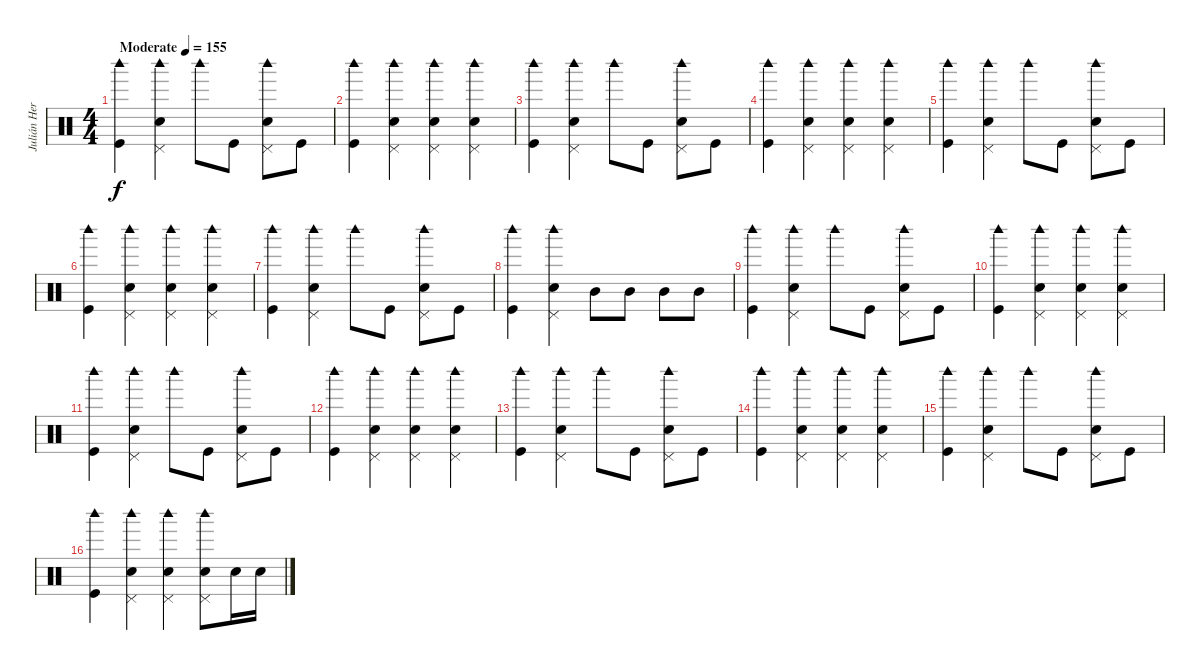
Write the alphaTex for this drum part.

\track ("Julián Hernandez" "Julián Her") {instrument percussion}
\staff {score}
\articulation defaults
\ts (4 4)
\tempo (155 "Moderate")
\clef neutral
\ks c
("Woodblock high (hit)" "Kick (hit)").4{dy f} ("Woodblock high (hit)" "Pedal Hi-Hat (hit)" "Snare (hit) 2").4 "Woodblock high (hit)".8 "Kick (hit)".8 ("Woodblock high (hit)" "Pedal Hi-Hat (hit)" "Snare (hit) 2").8 "Kick (hit)".8 |
("Woodblock high (hit)" "Kick (hit)").4 ("Woodblock high (hit)" "Pedal Hi-Hat (hit)" "Snare (hit) 2").4 ("Woodblock high (hit)" "Pedal Hi-Hat (hit)" "Snare (hit) 2").4 ("Woodblock high (hit)" "Pedal Hi-Hat (hit)" "Snare (hit) 2").4 |
("Woodblock high (hit)" "Kick (hit)").4 ("Woodblock high (hit)" "Pedal Hi-Hat (hit)" "Snare (hit) 2").4 "Woodblock high (hit)".8 "Kick (hit)".8 ("Woodblock high (hit)" "Pedal Hi-Hat (hit)" "Snare (hit) 2").8 "Kick (hit)".8 |
("Woodblock high (hit)" "Kick (hit)").4 ("Woodblock high (hit)" "Pedal Hi-Hat (hit)" "Snare (hit) 2").4 ("Woodblock high (hit)" "Pedal Hi-Hat (hit)" "Snare (hit) 2").4 ("Woodblock high (hit)" "Pedal Hi-Hat (hit)" "Snare (hit) 2").4 |
("Woodblock high (hit)" "Kick (hit)").4 ("Woodblock high (hit)" "Pedal Hi-Hat (hit)" "Snare (hit) 2").4 "Woodblock high (hit)".8 "Kick (hit)".8 ("Woodblock high (hit)" "Pedal Hi-Hat (hit)" "Snare (hit) 2").8 "Kick (hit)".8 |
("Woodblock high (hit)" "Kick (hit)").4 ("Woodblock high (hit)" "Pedal Hi-Hat (hit)" "Snare (hit) 2").4 ("Woodblock high (hit)" "Pedal Hi-Hat (hit)" "Snare (hit) 2").4 ("Woodblock high (hit)" "Pedal Hi-Hat (hit)" "Snare (hit) 2").4 |
("Woodblock high (hit)" "Kick (hit)").4 ("Woodblock high (hit)" "Pedal Hi-Hat (hit)" "Snare (hit) 2").4 "Woodblock high (hit)".8 "Kick (hit)".8 ("Woodblock high (hit)" "Pedal Hi-Hat (hit)" "Snare (hit) 2").8 "Kick (hit)".8 |
("Woodblock high (hit)" "Kick (hit)").4 ("Woodblock high (hit)" "Pedal Hi-Hat (hit)" "Snare (hit) 2").4 "Mid Tom (hit)".8 "Mid Tom (hit)".8 "Mid Tom (hit)".8 "Mid Tom (hit)".8 |
("Woodblock high (hit)" "Kick (hit)").4 ("Woodblock high (hit)" "Pedal Hi-Hat (hit)" "Snare (hit) 2").4 "Woodblock high (hit)".8 "Kick (hit)".8 ("Woodblock high (hit)" "Pedal Hi-Hat (hit)" "Snare (hit) 2").8 "Kick (hit)".8 |
("Woodblock high (hit)" "Kick (hit)").4 ("Woodblock high (hit)" "Pedal Hi-Hat (hit)" "Snare (hit) 2").4 ("Woodblock high (hit)" "Pedal Hi-Hat (hit)" "Snare (hit) 2").4 ("Woodblock high (hit)" "Pedal Hi-Hat (hit)" "Snare (hit) 2").4 |
("Woodblock high (hit)" "Kick (hit)").4 ("Woodblock high (hit)" "Pedal Hi-Hat (hit)" "Snare (hit) 2").4 "Woodblock high (hit)".8 "Kick (hit)".8 ("Woodblock high (hit)" "Pedal Hi-Hat (hit)" "Snare (hit) 2").8 "Kick (hit)".8 |
("Woodblock high (hit)" "Kick (hit)").4 ("Woodblock high (hit)" "Pedal Hi-Hat (hit)" "Snare (hit) 2").4 ("Woodblock high (hit)" "Pedal Hi-Hat (hit)" "Snare (hit) 2").4 ("Woodblock high (hit)" "Pedal Hi-Hat (hit)" "Snare (hit) 2").4 |
("Woodblock high (hit)" "Kick (hit)").4 ("Woodblock high (hit)" "Pedal Hi-Hat (hit)" "Snare (hit) 2").4 "Woodblock high (hit)".8 "Kick (hit)".8 ("Woodblock high (hit)" "Pedal Hi-Hat (hit)" "Snare (hit) 2").8 "Kick (hit)".8 |
("Woodblock high (hit)" "Kick (hit)").4 ("Woodblock high (hit)" "Pedal Hi-Hat (hit)" "Snare (hit) 2").4 ("Woodblock high (hit)" "Pedal Hi-Hat (hit)" "Snare (hit) 2").4 ("Woodblock high (hit)" "Pedal Hi-Hat (hit)" "Snare (hit) 2").4 |
("Woodblock high (hit)" "Kick (hit)").4 ("Woodblock high (hit)" "Pedal Hi-Hat (hit)" "Snare (hit) 2").4 "Woodblock high (hit)".8 "Kick (hit)".8 ("Woodblock high (hit)" "Pedal Hi-Hat (hit)" "Snare (hit) 2").8 "Kick (hit)".8 |
("Woodblock high (hit)" "Kick (hit)").4 ("Woodblock high (hit)" "Pedal Hi-Hat (hit)" "Snare (hit) 2").4 ("Woodblock high (hit)" "Pedal Hi-Hat (hit)" "Snare (hit) 2").4 ("Woodblock high (hit)" "Pedal Hi-Hat (hit)" "Snare (hit) 2").8 "Snare (hit) 2".16 "Snare (hit) 2".16
